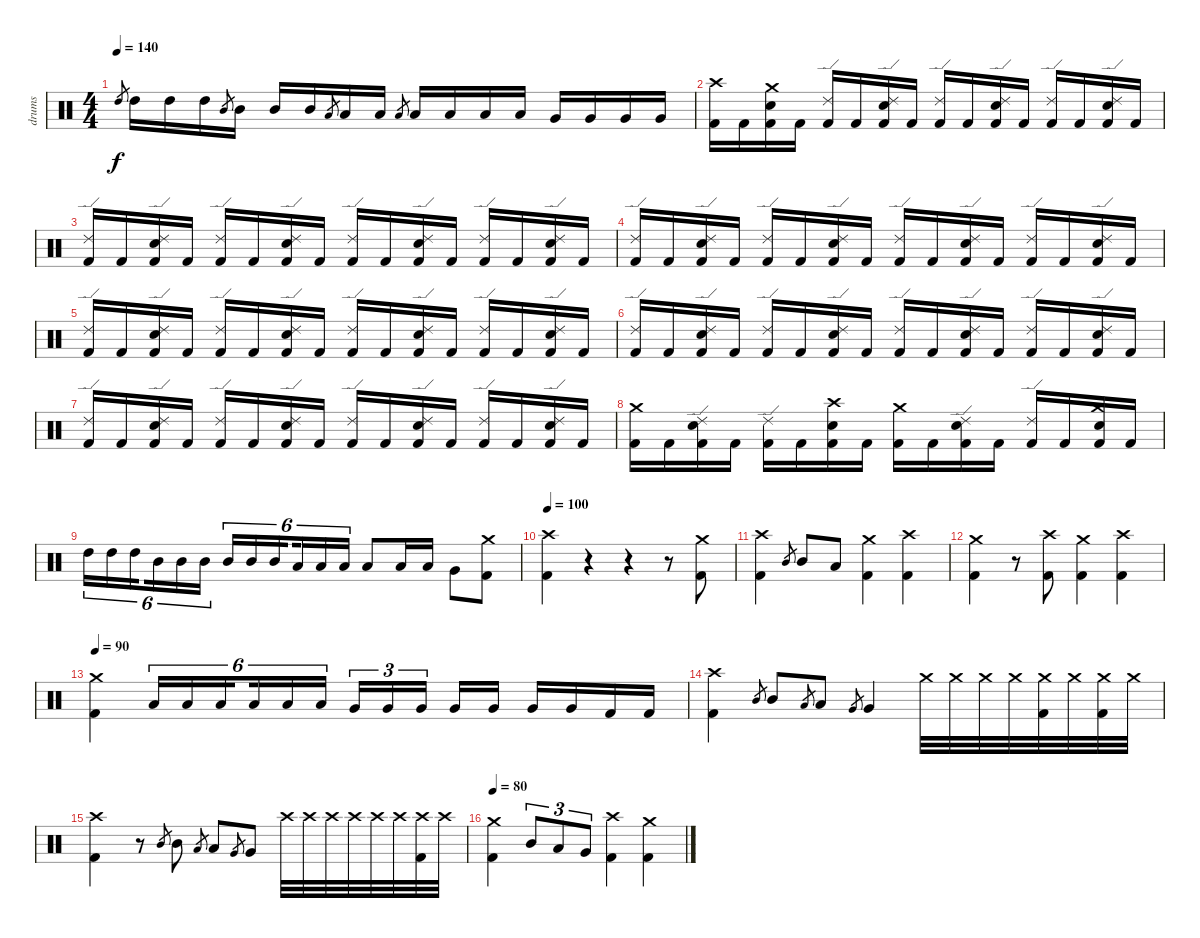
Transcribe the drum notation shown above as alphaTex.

\track ("drums" "drums") {instrument percussion}
\staff {score}
\articulation defaults
\ts (4 4)
\tempo 140
\clef neutral
\ks c "High Tom (hit)".8{gr dy f} "High Tom (hit)".16 "High Tom (hit)".16 "High Tom (hit)".16 "Mid Tom (hit)".8{gr} "Mid Tom (hit)".16 "Mid Tom (hit)".16 "Mid Tom (hit)".16 "Low Tom (hit)".8{gr} "Low Tom (hit)".16 "Low Tom (hit)".16 "Low Tom (hit)".8{gr} "Low Tom (hit)".16 "Low Tom (hit)".16 "Low Tom (hit)".16 "Low Tom (hit)".16 "Very Low Tom (hit)".16 "Very Low Tom (hit)".16 "Very Low Tom (hit)".16 "Very Low Tom (hit)".16
|
("Crash high (hit)" "Kick (hit) 2").16 "Kick (hit) 2".16 ("Crash medium (hit)" "Electric Snare (hit)" "Kick (hit) 2").16 "Kick (hit) 2".16 ("Ride (edge) 2" "Kick (hit) 2").16 "Kick (hit) 2".16 ("Ride (edge) 2" "Electric Snare (hit)" "Kick (hit) 2").16 "Kick (hit) 2".16 ("Ride (edge) 2" "Kick (hit) 2").16 "Kick (hit) 2".16 ("Ride (edge) 2" "Electric Snare (hit)" "Kick (hit) 2").16 "Kick (hit) 2".16 ("Ride (edge) 2" "Kick (hit) 2").16 "Kick (hit) 2".16 ("Ride (edge) 2" "Electric Snare (hit)" "Kick (hit) 2").16 "Kick (hit) 2".16 |
("Ride (edge) 2" "Kick (hit) 2").16 "Kick (hit) 2".16 ("Ride (edge) 2" "Electric Snare (hit)" "Kick (hit) 2").16 "Kick (hit) 2".16 ("Ride (edge) 2" "Kick (hit) 2").16 "Kick (hit) 2".16 ("Ride (edge) 2" "Electric Snare (hit)" "Kick (hit) 2").16 "Kick (hit) 2".16 ("Ride (edge) 2" "Kick (hit) 2").16 "Kick (hit) 2".16 ("Ride (edge) 2" "Electric Snare (hit)" "Kick (hit) 2").16 "Kick (hit) 2".16 ("Ride (edge) 2" "Kick (hit) 2").16 "Kick (hit) 2".16 ("Ride (edge) 2" "Electric Snare (hit)" "Kick (hit) 2").16 "Kick (hit) 2".16 |
("Ride (edge) 2" "Kick (hit) 2").16 "Kick (hit) 2".16 ("Ride (edge) 2" "Electric Snare (hit)" "Kick (hit) 2").16 "Kick (hit) 2".16 ("Ride (edge) 2" "Kick (hit) 2").16 "Kick (hit) 2".16 ("Ride (edge) 2" "Electric Snare (hit)" "Kick (hit) 2").16 "Kick (hit) 2".16 ("Ride (edge) 2" "Kick (hit) 2").16 "Kick (hit) 2".16 ("Ride (edge) 2" "Electric Snare (hit)" "Kick (hit) 2").16 "Kick (hit) 2".16 ("Ride (edge) 2" "Kick (hit) 2").16 "Kick (hit) 2".16 ("Ride (edge) 2" "Electric Snare (hit)" "Kick (hit) 2").16 "Kick (hit) 2".16 |
("Ride (edge) 2" "Kick (hit) 2").16 "Kick (hit) 2".16 ("Ride (edge) 2" "Electric Snare (hit)" "Kick (hit) 2").16 "Kick (hit) 2".16 ("Ride (edge) 2" "Kick (hit) 2").16 "Kick (hit) 2".16 ("Ride (edge) 2" "Electric Snare (hit)" "Kick (hit) 2").16 "Kick (hit) 2".16 ("Ride (edge) 2" "Kick (hit) 2").16 "Kick (hit) 2".16 ("Ride (edge) 2" "Electric Snare (hit)" "Kick (hit) 2").16 "Kick (hit) 2".16 ("Ride (edge) 2" "Kick (hit) 2").16 "Kick (hit) 2".16 ("Ride (edge) 2" "Electric Snare (hit)" "Kick (hit) 2").16 "Kick (hit) 2".16 |
("Ride (edge) 2" "Kick (hit) 2").16 "Kick (hit) 2".16 ("Ride (edge) 2" "Electric Snare (hit)" "Kick (hit) 2").16 "Kick (hit) 2".16 ("Ride (edge) 2" "Kick (hit) 2").16 "Kick (hit) 2".16 ("Ride (edge) 2" "Electric Snare (hit)" "Kick (hit) 2").16 "Kick (hit) 2".16 ("Ride (edge) 2" "Kick (hit) 2").16 "Kick (hit) 2".16 ("Ride (edge) 2" "Electric Snare (hit)" "Kick (hit) 2").16 "Kick (hit) 2".16 ("Ride (edge) 2" "Kick (hit) 2").16 "Kick (hit) 2".16 ("Ride (edge) 2" "Electric Snare (hit)" "Kick (hit) 2").16 "Kick (hit) 2".16 |
("Ride (edge) 2" "Kick (hit) 2").16 "Kick (hit) 2".16 ("Ride (edge) 2" "Electric Snare (hit)" "Kick (hit) 2").16 "Kick (hit) 2".16 ("Ride (edge) 2" "Kick (hit) 2").16 "Kick (hit) 2".16 ("Ride (edge) 2" "Electric Snare (hit)" "Kick (hit) 2").16 "Kick (hit) 2".16 ("Ride (edge) 2" "Kick (hit) 2").16 "Kick (hit) 2".16 ("Ride (edge) 2" "Electric Snare (hit)" "Kick (hit) 2").16 "Kick (hit) 2".16 ("Ride (edge) 2" "Kick (hit) 2").16 "Kick (hit) 2".16 ("Ride (edge) 2" "Electric Snare (hit)" "Kick (hit) 2").16 "Kick (hit) 2".16 |
("Crash medium (hit)" "Kick (hit) 2").16 "Kick (hit) 2".16 ("Ride (edge) 2" "Electric Snare (hit)" "Kick (hit) 2").16 "Kick (hit) 2".16 ("Ride (edge) 2" "Kick (hit) 2").16 "Kick (hit) 2".16 ("Crash high (hit)" "Electric Snare (hit)" "Kick (hit) 2").16 "Kick (hit) 2".16 ("Crash medium (hit)" "Kick (hit) 2").16 "Kick (hit) 2".16 ("Ride (edge) 2" "Electric Snare (hit)" "Kick (hit) 2").16 "Kick (hit) 2".16 ("Ride (edge) 2" "Kick (hit) 2").16 "Kick (hit) 2".16 ("Crash medium (hit)" "Electric Snare (hit)" "Kick (hit) 2").16 "Kick (hit) 2".16 |
"High Tom (hit)".16{tu (6 4)} "High Tom (hit)".16{tu (6 4)} "High Tom (hit)".16{tu (6 4) beam splitsecondary} "Mid Tom (hit)".16{tu (6 4)} "Mid Tom (hit)".16{tu (6 4)} "Mid Tom (hit)".16{tu (6 4)} "Mid Tom (hit)".16{tu (6 4)} "Mid Tom (hit)".16{tu (6 4)} "Mid Tom (hit)".16{tu (6 4) beam splitsecondary} "Low Tom (hit)".16{tu (6 4)} "Low Tom (hit)".16{tu (6 4)} "Low Tom (hit)".16{tu (6 4)} "Low Tom (hit)".8 "Low Tom (hit)".16 "Low Tom (hit)".16 "Very Low Tom (hit)".8 ("Crash medium (hit)" "Kick (hit) 2").8 |
\tempo 100
("Crash high (hit)" "Kick (hit) 2").4 r.4 r.4 r.8 ("Crash medium (hit)" "Kick (hit) 2").8 |
("Crash high (hit)" "Kick (hit) 2").4 "Mid Tom (hit)".8{gr} "Mid Tom (hit)".8 "Low Tom (hit)".8 ("Crash medium (hit)" "Kick (hit) 2").4 ("Crash high (hit)" "Kick (hit) 2").4 |
("Crash medium (hit)" "Kick (hit) 2").4 r.8 ("Crash high (hit)" "Kick (hit) 2").8 ("Crash medium (hit)" "Kick (hit) 2").4 ("Crash high (hit)" "Kick (hit) 2").4 |
\tempo 90
("Crash medium (hit)" "Kick (hit) 2").4 "Low Tom (hit)".16{tu (6 4)} "Low Tom (hit)".16{tu (6 4)} "Low Tom (hit)".16{tu (6 4) beam splitsecondary} "Low Tom (hit)".16{tu (6 4)} "Low Tom (hit)".16{tu (6 4)} "Low Tom (hit)".16{tu (6 4)} "Very Low Tom (hit)".16{tu (3 2)} "Very Low Tom (hit)".16{tu (3 2)} "Very Low Tom (hit)".16{tu (3 2) beam splitsecondary} "Very Low Tom (hit)".16 "Very Low Tom (hit)".16 "Very Low Tom (hit)".16 "Very Low Tom (hit)".16 "Kick (hit) 2".16 "Kick (hit) 2".16 |
("Crash high (hit)" "Kick (hit) 2").4 "Mid Tom (hit)".8{gr} "Mid Tom (hit)".8 "Low Tom (hit)".8{gr} "Low Tom (hit)".8 "Very Low Tom (hit)".8{gr} "Very Low Tom (hit)".4 "Crash medium (hit)".32 "Crash medium (hit)".32 "Crash medium (hit)".32 "Crash medium (hit)".32 ("Crash medium (hit)" "Kick (hit) 2").32 "Crash medium (hit)".32 ("Crash medium (hit)" "Kick (hit) 2").32 "Crash medium (hit)".32 |
("Crash high (hit)" "Kick (hit) 2").4 r.8 "Mid Tom (hit)".8{gr} "Mid Tom (hit)".8 "Low Tom (hit)".8{gr} "Low Tom (hit)".8 "Very Low Tom (hit)".8{gr} "Very Low Tom (hit)".8 "Crash high (hit)".32 "Crash high (hit)".32 "Crash high (hit)".32 "Crash high (hit)".32 "Crash high (hit)".32 "Crash high (hit)".32 ("Crash high (hit)" "Kick (hit) 2").32 "Crash high (hit)".32 |
\tempo 80
("Crash medium (hit)" "Kick (hit) 2").4 "Mid Tom (hit)".8{tu (3 2)} "Low Tom (hit)".8{tu (3 2)} "Very Low Tom (hit)".8{tu (3 2)} ("Crash high (hit)" "Kick (hit) 2").4 ("Crash medium (hit)" "Kick (hit) 2").4
